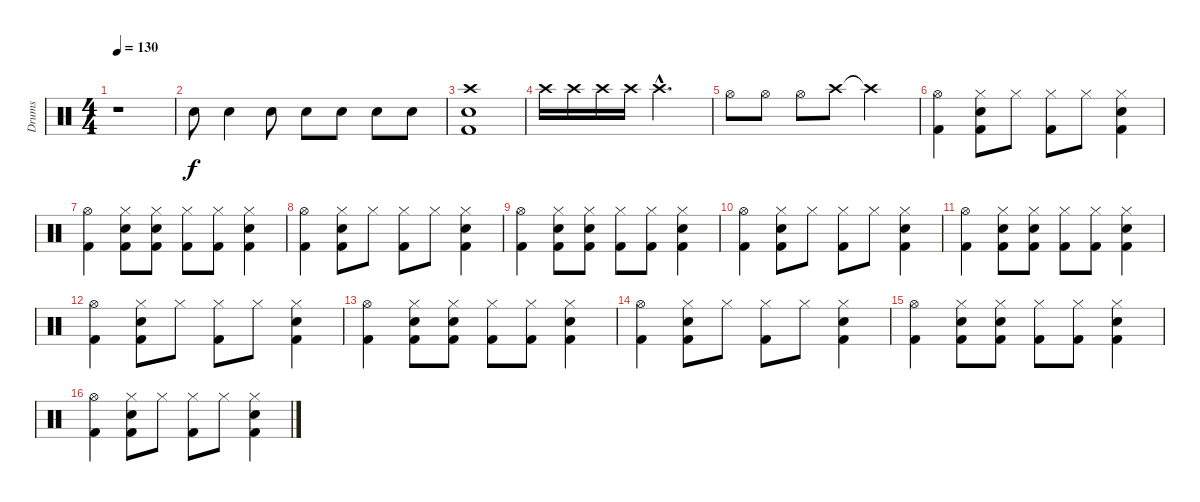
\track ("Drums" "Drums") {instrument percussion}
\staff {score}
\articulation defaults
\ts (4 4)
\tempo 130
\clef neutral
\ks c
r.1{dy fff} |
"Snare (hit) 2".8{dy f} "Snare (hit) 2".4 "Snare (hit) 2".8 "Snare (hit) 2".8 "Snare (hit) 2".8 "Snare (hit) 2".8 "Snare (hit) 2".8 |
("Crash high (hit)" "Snare (hit) 2" "Kick (hit) 2").1 |
"Crash high (hit)".16 "Crash high (hit)".16 "Crash high (hit)".16 "Crash high (hit)".16 "Crash high (hit)"{hac}.2{d} |
"Hi-Hat (open)".8 "Hi-Hat (open)".8 "Hi-Hat (open)".8 "Crash high (hit)".8 "Crash high (hit)"{t}.2 |
("Hi-Hat (open)" "Kick (hit) 2").4 ("Hi-Hat (closed)" "Snare (hit) 2" "Kick (hit) 2").8 "Hi-Hat (closed)".8 ("Hi-Hat (closed)" "Kick (hit) 2").8 "Hi-Hat (closed)".8 ("Hi-Hat (closed)" "Snare (hit) 2" "Kick (hit) 2").4 |
("Hi-Hat (open)" "Kick (hit) 2").4 ("Hi-Hat (closed)" "Snare (hit) 2" "Kick (hit) 2").8 ("Hi-Hat (closed)" "Snare (hit) 2" "Kick (hit) 2").8 ("Hi-Hat (closed)" "Kick (hit) 2").8 ("Hi-Hat (closed)" "Kick (hit) 2").8 ("Hi-Hat (closed)" "Snare (hit) 2" "Kick (hit) 2").4 |
("Hi-Hat (open)" "Kick (hit) 2").4 ("Hi-Hat (closed)" "Snare (hit) 2" "Kick (hit) 2").8 "Hi-Hat (closed)".8 ("Hi-Hat (closed)" "Kick (hit) 2").8 "Hi-Hat (closed)".8 ("Hi-Hat (closed)" "Snare (hit) 2" "Kick (hit) 2").4 |
("Hi-Hat (open)" "Kick (hit) 2").4 ("Hi-Hat (closed)" "Snare (hit) 2" "Kick (hit) 2").8 ("Hi-Hat (closed)" "Snare (hit) 2" "Kick (hit) 2").8 ("Hi-Hat (closed)" "Kick (hit) 2").8 ("Hi-Hat (closed)" "Kick (hit) 2").8 ("Hi-Hat (closed)" "Snare (hit) 2" "Kick (hit) 2").4 |
("Hi-Hat (open)" "Kick (hit) 2").4 ("Hi-Hat (closed)" "Snare (hit) 2" "Kick (hit) 2").8 "Hi-Hat (closed)".8 ("Hi-Hat (closed)" "Kick (hit) 2").8 "Hi-Hat (closed)".8 ("Hi-Hat (closed)" "Snare (hit) 2" "Kick (hit) 2").4 |
("Hi-Hat (open)" "Kick (hit) 2").4 ("Hi-Hat (closed)" "Snare (hit) 2" "Kick (hit) 2").8 ("Hi-Hat (closed)" "Snare (hit) 2" "Kick (hit) 2").8 ("Hi-Hat (closed)" "Kick (hit) 2").8 ("Hi-Hat (closed)" "Kick (hit) 2").8 ("Hi-Hat (closed)" "Snare (hit) 2" "Kick (hit) 2").4 |
("Hi-Hat (open)" "Kick (hit) 2").4 ("Hi-Hat (closed)" "Snare (hit) 2" "Kick (hit) 2").8 "Hi-Hat (closed)".8 ("Hi-Hat (closed)" "Kick (hit) 2").8 "Hi-Hat (closed)".8 ("Hi-Hat (closed)" "Snare (hit) 2" "Kick (hit) 2").4 |
("Hi-Hat (open)" "Kick (hit) 2").4 ("Hi-Hat (closed)" "Snare (hit) 2" "Kick (hit) 2").8 ("Hi-Hat (closed)" "Snare (hit) 2" "Kick (hit) 2").8 ("Hi-Hat (closed)" "Kick (hit) 2").8 ("Hi-Hat (closed)" "Kick (hit) 2").8 ("Hi-Hat (closed)" "Snare (hit) 2" "Kick (hit) 2").4 |
("Hi-Hat (open)" "Kick (hit) 2").4 ("Hi-Hat (closed)" "Snare (hit) 2" "Kick (hit) 2").8 "Hi-Hat (closed)".8 ("Hi-Hat (closed)" "Kick (hit) 2").8 "Hi-Hat (closed)".8 ("Hi-Hat (closed)" "Snare (hit) 2" "Kick (hit) 2").4 |
("Hi-Hat (open)" "Kick (hit) 2").4 ("Hi-Hat (closed)" "Snare (hit) 2" "Kick (hit) 2").8 ("Hi-Hat (closed)" "Snare (hit) 2" "Kick (hit) 2").8 ("Hi-Hat (closed)" "Kick (hit) 2").8 ("Hi-Hat (closed)" "Kick (hit) 2").8 ("Hi-Hat (closed)" "Snare (hit) 2" "Kick (hit) 2").4 |
("Hi-Hat (open)" "Kick (hit) 2").4 ("Hi-Hat (closed)" "Snare (hit) 2" "Kick (hit) 2").8 "Hi-Hat (closed)".8 ("Hi-Hat (closed)" "Kick (hit) 2").8 "Hi-Hat (closed)".8 ("Hi-Hat (closed)" "Snare (hit) 2" "Kick (hit) 2").4
